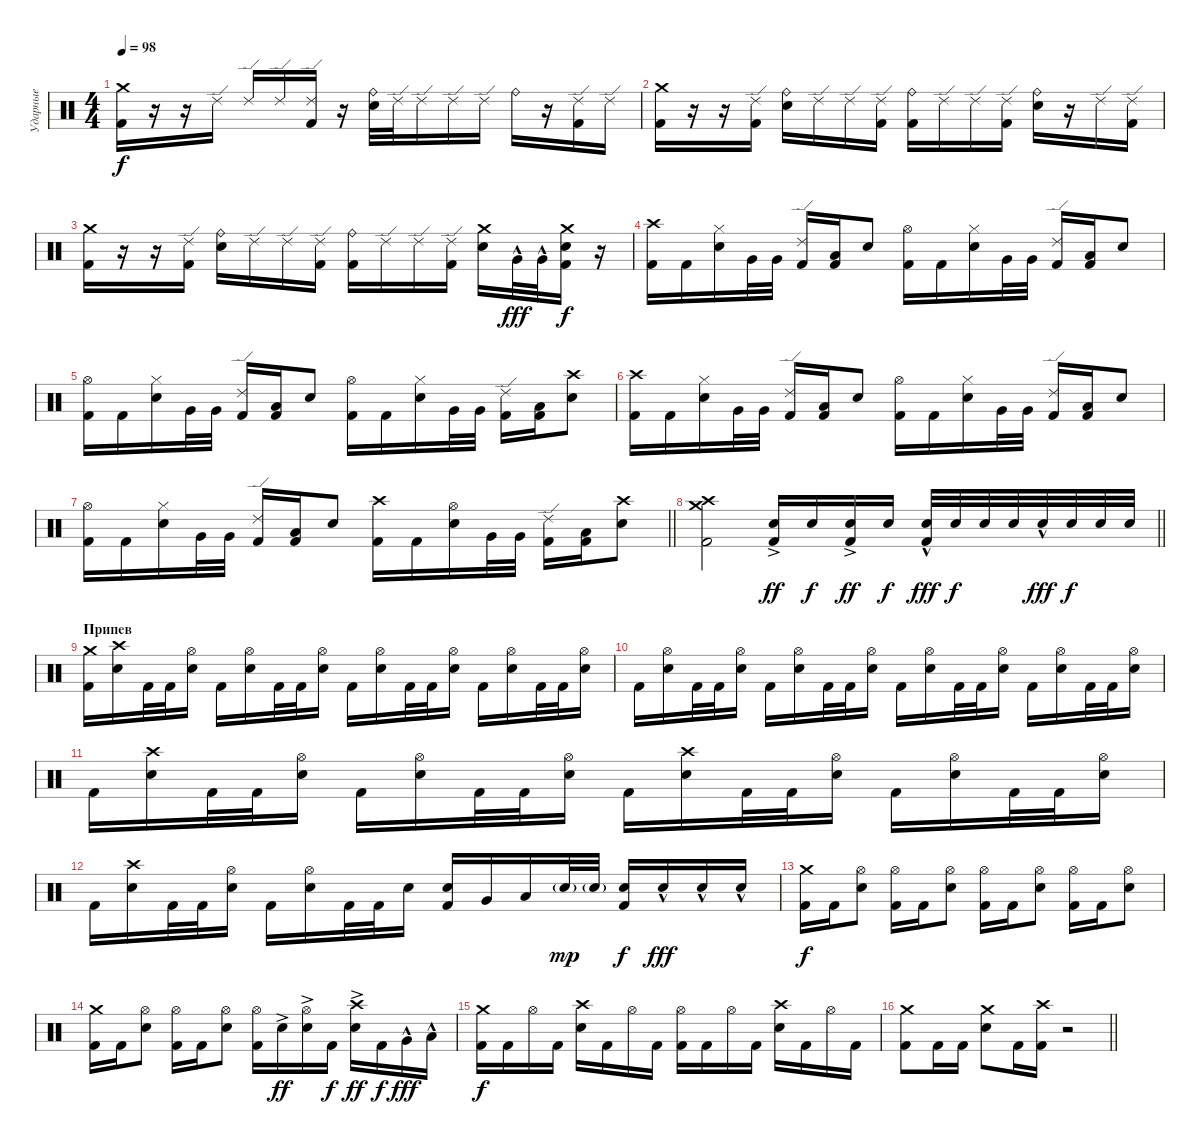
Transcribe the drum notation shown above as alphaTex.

\track ("Ударные" "Ударные") {instrument percussion}
\staff {score}
\articulation defaults
\ts (4 4)
\tempo 98
\clef neutral
\ks c
("Crash medium (hit)" "Kick (hit) 2").16{dy f} r.16 r.16 "Ride (edge) 2".16 "Ride (edge) 2".16 "Ride (edge) 2".16 ("Ride (edge) 2" "Kick (hit) 2").16 r.16 ("Ride (bell)" "Electric Snare (hit)").32 "Ride (edge) 2".32 "Ride (edge) 2".16 "Ride (edge) 2".16 "Ride (edge) 2".16 "Ride (bell)".16 r.16 ("Ride (edge) 2" "Kick (hit) 2").16 "Ride (edge) 2".16 |
("Crash medium (hit)" "Kick (hit) 2").16 r.16 r.16 ("Ride (edge) 2" "Kick (hit) 2").16 ("Ride (bell)" "Electric Snare (hit)").16 "Ride (edge) 2".16 "Ride (edge) 2".16 ("Ride (edge) 2" "Kick (hit) 2").16 ("Ride (bell)" "Kick (hit) 2").16 "Ride (edge) 2".16 "Ride (edge) 2".16 ("Ride (edge) 2" "Kick (hit) 2").16 ("Ride (bell)" "Electric Snare (hit)").16 r.16 "Ride (edge) 2".16 ("Ride (edge) 2" "Kick (hit) 2").16 |
("Crash medium (hit)" "Kick (hit) 2").16 r.16 r.16 ("Ride (edge) 2" "Kick (hit) 2").16 ("Ride (bell)" "Electric Snare (hit)").16 "Ride (edge) 2".16 "Ride (edge) 2".16 ("Ride (edge) 2" "Kick (hit) 2").16 ("Ride (bell)" "Kick (hit) 2").16 "Ride (edge) 2".16 "Ride (edge) 2".16 ("Ride (edge) 2" "Kick (hit) 2").16 ("Crash medium (hit)" "Electric Snare (hit)").16 "Very Low Tom (hit)"{hac}.32{dy fff} "Very Low Tom (hit)"{hac}.32 ("Crash medium (hit)" "Electric Snare (hit)" "Kick (hit) 2").16{dy f} r.16 |
("Crash high (hit)" "Kick (hit) 2").16 "Kick (hit) 2".16 ("Hi-Hat (closed)" "Electric Snare (hit)").16 "Very Low Tom (hit)".32 "Very Low Tom (hit)".32 ("Ride (edge) 2" "Kick (hit) 2").16 ("Low Floor Tom (hit)" "Kick (hit) 2").16 "Electric Snare (hit)".8 ("Hi-Hat (open)" "Kick (hit) 2").16 "Kick (hit) 2".16 ("Hi-Hat (closed)" "Electric Snare (hit)").16 "Very Low Tom (hit)".32 "Very Low Tom (hit)".32 ("Ride (edge) 2" "Kick (hit) 2").16 ("Low Floor Tom (hit)" "Kick (hit) 2").16 "Electric Snare (hit)".8 |
("Hi-Hat (open)" "Kick (hit) 2").16 "Kick (hit) 2".16 ("Hi-Hat (closed)" "Electric Snare (hit)").16 "Very Low Tom (hit)".32 "Very Low Tom (hit)".32 ("Ride (edge) 2" "Kick (hit) 2").16 ("Low Floor Tom (hit)" "Kick (hit) 2").16 "Electric Snare (hit)".8 ("Hi-Hat (open)" "Kick (hit) 2").16 "Kick (hit) 2".16 ("Hi-Hat (closed)" "Electric Snare (hit)").16 "Very Low Tom (hit)".32 "Very Low Tom (hit)".32 ("Ride (edge) 2" "Kick (hit) 2").16 ("Low Floor Tom (hit)" "Kick (hit) 2").16 ("Crash high (hit)" "Electric Snare (hit)").8 |
("Crash high (hit)" "Kick (hit) 2").16 "Kick (hit) 2".16 ("Hi-Hat (closed)" "Electric Snare (hit)").16 "Very Low Tom (hit)".32 "Very Low Tom (hit)".32 ("Ride (edge) 2" "Kick (hit) 2").16 ("Low Floor Tom (hit)" "Kick (hit) 2").16 "Electric Snare (hit)".8 ("Hi-Hat (open)" "Kick (hit) 2").16 "Kick (hit) 2".16 ("Hi-Hat (closed)" "Electric Snare (hit)").16 "Very Low Tom (hit)".32 "Very Low Tom (hit)".32 ("Ride (edge) 2" "Kick (hit) 2").16 ("Low Floor Tom (hit)" "Kick (hit) 2").16 "Electric Snare (hit)".8 |
\barLineRight lightlight
("Hi-Hat (open)" "Kick (hit) 2").16 "Kick (hit) 2".16 ("Hi-Hat (closed)" "Electric Snare (hit)").16 "Very Low Tom (hit)".32 "Very Low Tom (hit)".32 ("Ride (edge) 2" "Kick (hit) 2").16 ("Low Floor Tom (hit)" "Kick (hit) 2").16 "Electric Snare (hit)".8 ("Crash high (hit)" "Kick (hit) 2").16 "Kick (hit) 2".16 ("Hi-Hat (open)" "Electric Snare (hit)").16 "Very Low Tom (hit)".32 "Very Low Tom (hit)".32 ("Ride (edge) 2" "Kick (hit) 2").16 ("Low Floor Tom (hit)" "Kick (hit) 2").16 ("Crash high (hit)" "Electric Snare (hit)").8 |
\barLineRight lightlight
("Crash medium (hit)" "Crash high (hit)" "Kick (hit) 2").2 ("Electric Snare (hit)"{ac} "Kick (hit) 2").16{dy ff} "Electric Snare (hit)".16{dy f} ("Electric Snare (hit)"{ac} "Kick (hit) 2").16{dy ff} "Electric Snare (hit)".16{dy f} ("Electric Snare (hit)"{hac} "Kick (hit) 2").32{dy fff} "Electric Snare (hit)".32{dy f} "Electric Snare (hit)".32 "Electric Snare (hit)".32 "Electric Snare (hit)"{hac}.32{dy fff} "Electric Snare (hit)".32{dy f} "Electric Snare (hit)".32 "Electric Snare (hit)".32 |
\section ("" "Припев")
("Crash medium (hit)" "Kick (hit) 2").16 ("Crash high (hit)" "Electric Snare (hit)").16 "Kick (hit) 2".32 "Kick (hit) 2".32 ("Hi-Hat (open)" "Electric Snare (hit)").16 "Kick (hit) 2".16 ("Hi-Hat (open)" "Electric Snare (hit)").16 "Kick (hit) 2".32 "Kick (hit) 2".32 ("Hi-Hat (open)" "Electric Snare (hit)").16 "Kick (hit) 2".16 ("Hi-Hat (open)" "Electric Snare (hit)").16 "Kick (hit) 2".32 "Kick (hit) 2".32 ("Hi-Hat (open)" "Electric Snare (hit)").16 "Kick (hit) 2".16 ("Hi-Hat (open)" "Electric Snare (hit)").16 "Kick (hit) 2".32 "Kick (hit) 2".32 ("Hi-Hat (open)" "Electric Snare (hit)").16 |
"Kick (hit) 2".16 ("Hi-Hat (open)" "Electric Snare (hit)").16 "Kick (hit) 2".32 "Kick (hit) 2".32 ("Hi-Hat (open)" "Electric Snare (hit)").16 "Kick (hit) 2".16 ("Hi-Hat (open)" "Electric Snare (hit)").16 "Kick (hit) 2".32 "Kick (hit) 2".32 ("Hi-Hat (open)" "Electric Snare (hit)").16 "Kick (hit) 2".16 ("Hi-Hat (open)" "Electric Snare (hit)").16 "Kick (hit) 2".32 "Kick (hit) 2".32 ("Hi-Hat (open)" "Electric Snare (hit)").16 "Kick (hit) 2".16 ("Hi-Hat (open)" "Electric Snare (hit)").16 "Kick (hit) 2".32 "Kick (hit) 2".32 ("Hi-Hat (open)" "Electric Snare (hit)").16 |
"Kick (hit) 2".16 ("Crash high (hit)" "Electric Snare (hit)").16 "Kick (hit) 2".32 "Kick (hit) 2".32 ("Hi-Hat (open)" "Electric Snare (hit)").16 "Kick (hit) 2".16 ("Hi-Hat (open)" "Electric Snare (hit)").16 "Kick (hit) 2".32 "Kick (hit) 2".32 ("Hi-Hat (open)" "Electric Snare (hit)").16 "Kick (hit) 2".16 ("Crash high (hit)" "Electric Snare (hit)").16 "Kick (hit) 2".32 "Kick (hit) 2".32 ("Hi-Hat (open)" "Electric Snare (hit)").16 "Kick (hit) 2".16 ("Hi-Hat (open)" "Electric Snare (hit)").16 "Kick (hit) 2".32 "Kick (hit) 2".32 ("Hi-Hat (open)" "Electric Snare (hit)").16 |
"Kick (hit) 2".16 ("Crash high (hit)" "Electric Snare (hit)").16 "Kick (hit) 2".32 "Kick (hit) 2".32 ("Hi-Hat (open)" "Electric Snare (hit)").16 "Kick (hit) 2".16 ("Hi-Hat (open)" "Electric Snare (hit)").16 "Kick (hit) 2".32 "Kick (hit) 2".32 "Electric Snare (hit)".16 ("Electric Snare (hit)" "Kick (hit) 2").16 "Very Low Tom (hit)".16 "Low Floor Tom (hit)".16 "Electric Snare (hit)"{g}.32{dy mp} "Electric Snare (hit)"{g}.32 ("Electric Snare (hit)" "Kick (hit) 2").16{dy f} "Electric Snare (hit)"{hac}.16{dy fff} "Electric Snare (hit)"{hac}.16 "Electric Snare (hit)"{hac}.16 |
("Crash medium (hit)" "Kick (hit) 2").16{dy f} "Kick (hit) 2".16 ("Hi-Hat (open)" "Electric Snare (hit)").8 ("Hi-Hat (open)" "Kick (hit) 2").16 "Kick (hit) 2".16 ("Hi-Hat (open)" "Electric Snare (hit)").8 ("Hi-Hat (open)" "Kick (hit) 2").16 "Kick (hit) 2".16 ("Hi-Hat (open)" "Electric Snare (hit)").8 ("Hi-Hat (open)" "Kick (hit) 2").16 "Kick (hit) 2".16 ("Hi-Hat (open)" "Electric Snare (hit)").8 |
("Crash medium (hit)" "Kick (hit) 2").16 "Kick (hit) 2".16 ("Hi-Hat (open)" "Electric Snare (hit)").8 ("Hi-Hat (open)" "Kick (hit) 2").16 "Kick (hit) 2".16 ("Hi-Hat (open)" "Electric Snare (hit)").8 ("Hi-Hat (open)" "Kick (hit) 2").16 "Electric Snare (hit)"{ac}.16{dy ff} ("Hi-Hat (open)" "Electric Snare (hit)"{ac}).16 "Kick (hit) 2".16{dy f} ("Crash high (hit)" "Electric Snare (hit)"{ac}).16{dy ff} "Kick (hit) 2".16{dy f} "Very Low Tom (hit)"{hac}.16{dy fff} "Low Floor Tom (hit)"{hac}.16 |
("Crash medium (hit)" "Kick (hit) 2").16{dy f} "Kick (hit) 2".16 "Hi-Hat (open)".16 "Kick (hit) 2".16 ("Crash high (hit)" "Electric Snare (hit)").16 "Kick (hit) 2".16 "Hi-Hat (open)".16 "Kick (hit) 2".16 ("Hi-Hat (open)" "Kick (hit) 2").16 "Kick (hit) 2".16 "Hi-Hat (open)".16 "Kick (hit) 2".16 ("Crash high (hit)" "Electric Snare (hit)").16 "Kick (hit) 2".16 "Hi-Hat (open)".16 "Kick (hit) 2".16 |
\barLineRight lightlight
("Crash medium (hit)" "Kick (hit) 2").8 "Kick (hit) 2".16 "Kick (hit) 2".16 ("Crash medium (hit)" "Electric Snare (hit)").8 "Kick (hit) 2".16 ("Crash high (hit)" "Kick (hit) 2").16 r.2
